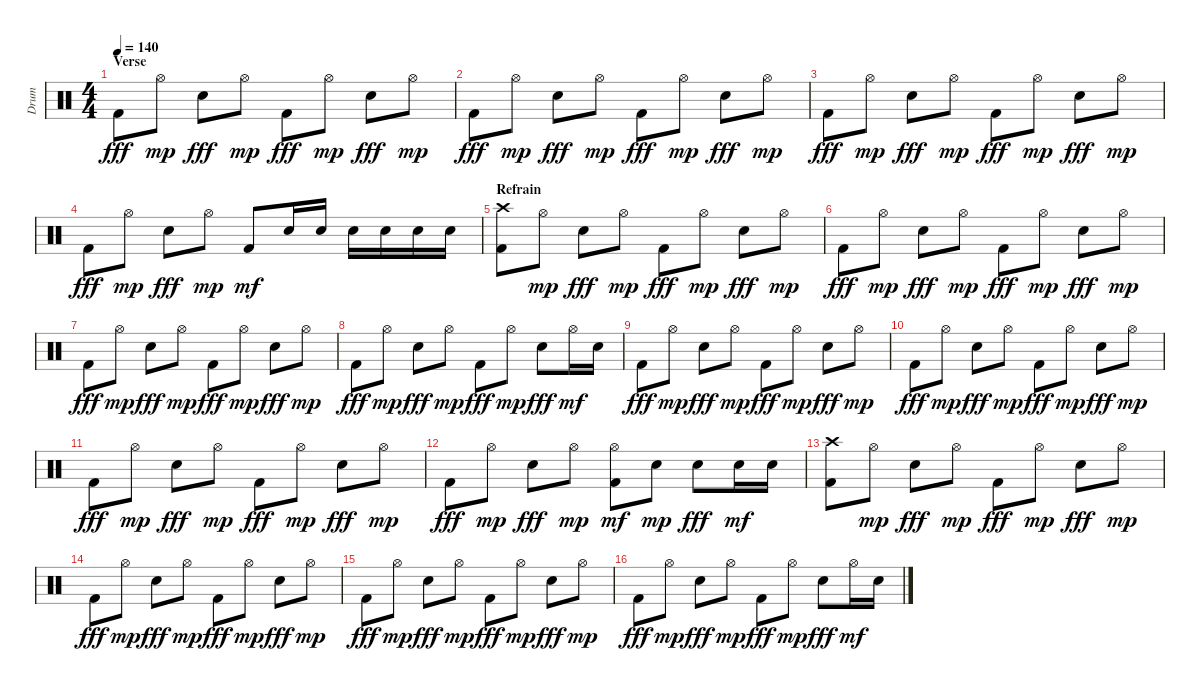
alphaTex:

\track ("Drum" "Drum") {instrument percussion}
\staff {score}
\articulation defaults
\ts (4 4)
\section ("" "Verse")
\tempo 140
\clef neutral
\ks c "Kick (hit) 2".8{dy fff} "Hi-Hat (open)".8{dy mp} "Electric Snare (hit)".8{dy fff} "Hi-Hat (open)".8{dy mp} "Kick (hit) 2".8{dy fff} "Hi-Hat (open)".8{dy mp} "Electric Snare (hit)".8{dy fff} "Hi-Hat (open)".8{dy mp}
|
"Kick (hit) 2".8{dy fff} "Hi-Hat (open)".8{dy mp} "Electric Snare (hit)".8{dy fff} "Hi-Hat (open)".8{dy mp} "Kick (hit) 2".8{dy fff} "Hi-Hat (open)".8{dy mp} "Electric Snare (hit)".8{dy fff} "Hi-Hat (open)".8{dy mp} |
"Kick (hit) 2".8{dy fff} "Hi-Hat (open)".8{dy mp} "Electric Snare (hit)".8{dy fff} "Hi-Hat (open)".8{dy mp} "Kick (hit) 2".8{dy fff} "Hi-Hat (open)".8{dy mp} "Electric Snare (hit)".8{dy fff} "Hi-Hat (open)".8{dy mp} |
"Kick (hit) 2".8{dy fff} "Hi-Hat (open)".8{dy mp} "Electric Snare (hit)".8{dy fff} "Hi-Hat (open)".8{dy mp} "Kick (hit) 2".8{dy mf} "Electric Snare (hit)".16 "Electric Snare (hit)".16 "Electric Snare (hit)".16 "Electric Snare (hit)".16 "Electric Snare (hit)".16 "Electric Snare (hit)".16 |
\section ("" "Refrain")
("Kick (hit) 2" "Crash high (hit)").8 "Hi-Hat (open)".8{dy mp} "Electric Snare (hit)".8{dy fff} "Hi-Hat (open)".8{dy mp} "Kick (hit) 2".8{dy fff} "Hi-Hat (open)".8{dy mp} "Electric Snare (hit)".8{dy fff} "Hi-Hat (open)".8{dy mp} |
"Kick (hit) 2".8{dy fff} "Hi-Hat (open)".8{dy mp} "Electric Snare (hit)".8{dy fff} "Hi-Hat (open)".8{dy mp} "Kick (hit) 2".8{dy fff} "Hi-Hat (open)".8{dy mp} "Electric Snare (hit)".8{dy fff} "Hi-Hat (open)".8{dy mp} |
"Kick (hit) 2".8{dy fff} "Hi-Hat (open)".8{dy mp} "Electric Snare (hit)".8{dy fff} "Hi-Hat (open)".8{dy mp} "Kick (hit) 2".8{dy fff} "Hi-Hat (open)".8{dy mp} "Electric Snare (hit)".8{dy fff} "Hi-Hat (open)".8{dy mp} |
"Kick (hit) 2".8{dy fff} "Hi-Hat (open)".8{dy mp} "Electric Snare (hit)".8{dy fff} "Hi-Hat (open)".8{dy mp} "Kick (hit) 2".8{dy fff} "Hi-Hat (open)".8{dy mp} "Electric Snare (hit)".8{dy fff} "Hi-Hat (open)".16{dy mf} "Electric Snare (hit)".16 |
"Kick (hit) 2".8{dy fff} "Hi-Hat (open)".8{dy mp} "Electric Snare (hit)".8{dy fff} "Hi-Hat (open)".8{dy mp} "Kick (hit) 2".8{dy fff} "Hi-Hat (open)".8{dy mp} "Electric Snare (hit)".8{dy fff} "Hi-Hat (open)".8{dy mp} |
"Kick (hit) 2".8{dy fff} "Hi-Hat (open)".8{dy mp} "Electric Snare (hit)".8{dy fff} "Hi-Hat (open)".8{dy mp} "Kick (hit) 2".8{dy fff} "Hi-Hat (open)".8{dy mp} "Electric Snare (hit)".8{dy fff} "Hi-Hat (open)".8{dy mp} |
"Kick (hit) 2".8{dy fff} "Hi-Hat (open)".8{dy mp} "Electric Snare (hit)".8{dy fff} "Hi-Hat (open)".8{dy mp} "Kick (hit) 2".8{dy fff} "Hi-Hat (open)".8{dy mp} "Electric Snare (hit)".8{dy fff} "Hi-Hat (open)".8{dy mp} |
"Kick (hit) 2".8{dy fff} "Hi-Hat (open)".8{dy mp} "Electric Snare (hit)".8{dy fff} "Hi-Hat (open)".8{dy mp} ("Kick (hit) 2" "Hi-Hat (open)").8{dy mf} "Electric Snare (hit)".8{dy mp} "Electric Snare (hit)".8{dy fff} "Electric Snare (hit)".16{dy mf} "Electric Snare (hit)".16 |
("Kick (hit) 2" "Crash high (hit)").8 "Hi-Hat (open)".8{dy mp} "Electric Snare (hit)".8{dy fff} "Hi-Hat (open)".8{dy mp} "Kick (hit) 2".8{dy fff} "Hi-Hat (open)".8{dy mp} "Electric Snare (hit)".8{dy fff} "Hi-Hat (open)".8{dy mp} |
"Kick (hit) 2".8{dy fff} "Hi-Hat (open)".8{dy mp} "Electric Snare (hit)".8{dy fff} "Hi-Hat (open)".8{dy mp} "Kick (hit) 2".8{dy fff} "Hi-Hat (open)".8{dy mp} "Electric Snare (hit)".8{dy fff} "Hi-Hat (open)".8{dy mp} |
"Kick (hit) 2".8{dy fff} "Hi-Hat (open)".8{dy mp} "Electric Snare (hit)".8{dy fff} "Hi-Hat (open)".8{dy mp} "Kick (hit) 2".8{dy fff} "Hi-Hat (open)".8{dy mp} "Electric Snare (hit)".8{dy fff} "Hi-Hat (open)".8{dy mp} |
"Kick (hit) 2".8{dy fff} "Hi-Hat (open)".8{dy mp} "Electric Snare (hit)".8{dy fff} "Hi-Hat (open)".8{dy mp} "Kick (hit) 2".8{dy fff} "Hi-Hat (open)".8{dy mp} "Electric Snare (hit)".8{dy fff} "Hi-Hat (open)".16{dy mf} "Electric Snare (hit)".16
